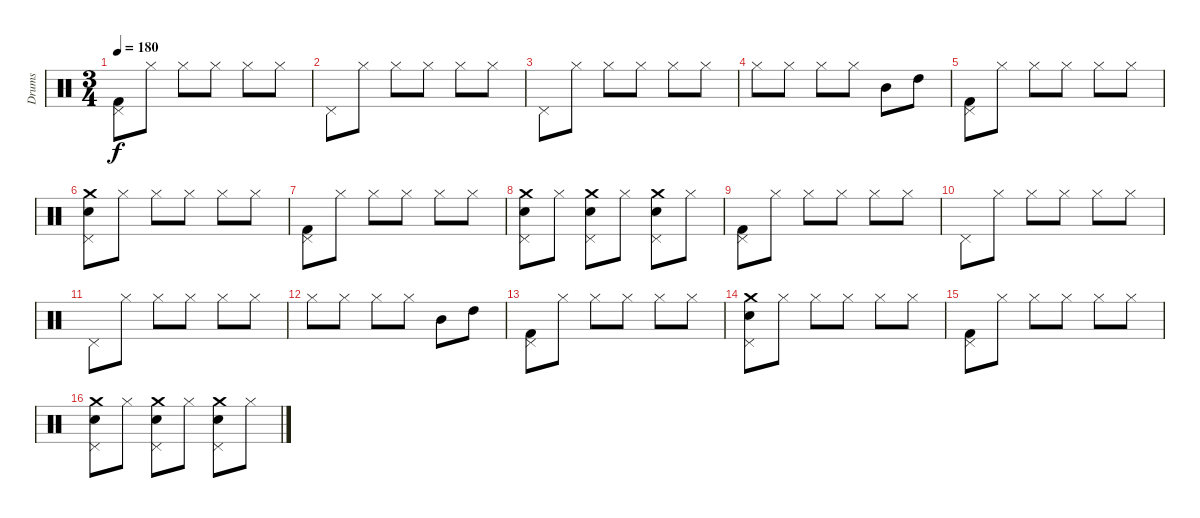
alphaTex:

\track ("Drums" "Drums") {instrument percussion}
\staff {score}
\articulation defaults
\ts (3 4)
\tempo 180
\clef neutral
\ks c
("Pedal Hi-Hat (hit)" "Kick (hit) 2").8{dy f} "Hi-Hat (closed)".8 "Hi-Hat (closed)".8 "Hi-Hat (closed)".8 "Hi-Hat (closed)".8 "Hi-Hat (closed)".8 |
"Pedal Hi-Hat (hit)".8 "Hi-Hat (closed)".8 "Hi-Hat (closed)".8 "Hi-Hat (closed)".8 "Hi-Hat (closed)".8 "Hi-Hat (closed)".8 |
"Pedal Hi-Hat (hit)".8 "Hi-Hat (closed)".8 "Hi-Hat (closed)".8 "Hi-Hat (closed)".8 "Hi-Hat (closed)".8 "Hi-Hat (closed)".8 |
"Hi-Hat (closed)".8 "Hi-Hat (closed)".8 "Hi-Hat (closed)".8 "Hi-Hat (closed)".8 "Mid Tom (hit)".8 "High Tom (hit)".8 |
("Pedal Hi-Hat (hit)" "Kick (hit) 2").8 "Hi-Hat (closed)".8 "Hi-Hat (closed)".8 "Hi-Hat (closed)".8 "Hi-Hat (closed)".8 "Hi-Hat (closed)".8 |
("Crash medium (hit)" "Electric Snare (hit)" "Pedal Hi-Hat (hit)").8 "Hi-Hat (closed)".8 "Hi-Hat (closed)".8 "Hi-Hat (closed)".8 "Hi-Hat (closed)".8 "Hi-Hat (closed)".8 |
("Pedal Hi-Hat (hit)" "Kick (hit) 2").8 "Hi-Hat (closed)".8 "Hi-Hat (closed)".8 "Hi-Hat (closed)".8 "Hi-Hat (closed)".8 "Hi-Hat (closed)".8 |
("Crash medium (hit)" "Electric Snare (hit)" "Pedal Hi-Hat (hit)").8 "Hi-Hat (closed)".8 ("Crash medium (hit)" "Pedal Hi-Hat (hit)" "Electric Snare (hit)").8 "Hi-Hat (closed)".8 ("Crash medium (hit)" "Pedal Hi-Hat (hit)" "Electric Snare (hit)").8 "Hi-Hat (closed)".8 |
("Pedal Hi-Hat (hit)" "Kick (hit) 2").8 "Hi-Hat (closed)".8 "Hi-Hat (closed)".8 "Hi-Hat (closed)".8 "Hi-Hat (closed)".8 "Hi-Hat (closed)".8 |
"Pedal Hi-Hat (hit)".8 "Hi-Hat (closed)".8 "Hi-Hat (closed)".8 "Hi-Hat (closed)".8 "Hi-Hat (closed)".8 "Hi-Hat (closed)".8 |
"Pedal Hi-Hat (hit)".8 "Hi-Hat (closed)".8 "Hi-Hat (closed)".8 "Hi-Hat (closed)".8 "Hi-Hat (closed)".8 "Hi-Hat (closed)".8 |
"Hi-Hat (closed)".8 "Hi-Hat (closed)".8 "Hi-Hat (closed)".8 "Hi-Hat (closed)".8 "Mid Tom (hit)".8 "High Tom (hit)".8 |
("Pedal Hi-Hat (hit)" "Kick (hit) 2").8 "Hi-Hat (closed)".8 "Hi-Hat (closed)".8 "Hi-Hat (closed)".8 "Hi-Hat (closed)".8 "Hi-Hat (closed)".8 |
("Crash medium (hit)" "Electric Snare (hit)" "Pedal Hi-Hat (hit)").8 "Hi-Hat (closed)".8 "Hi-Hat (closed)".8 "Hi-Hat (closed)".8 "Hi-Hat (closed)".8 "Hi-Hat (closed)".8 |
("Pedal Hi-Hat (hit)" "Kick (hit) 2").8 "Hi-Hat (closed)".8 "Hi-Hat (closed)".8 "Hi-Hat (closed)".8 "Hi-Hat (closed)".8 "Hi-Hat (closed)".8 |
("Crash medium (hit)" "Electric Snare (hit)" "Pedal Hi-Hat (hit)").8 "Hi-Hat (closed)".8 ("Crash medium (hit)" "Pedal Hi-Hat (hit)" "Electric Snare (hit)").8 "Hi-Hat (closed)".8 ("Crash medium (hit)" "Pedal Hi-Hat (hit)" "Electric Snare (hit)").8 "Hi-Hat (closed)".8
